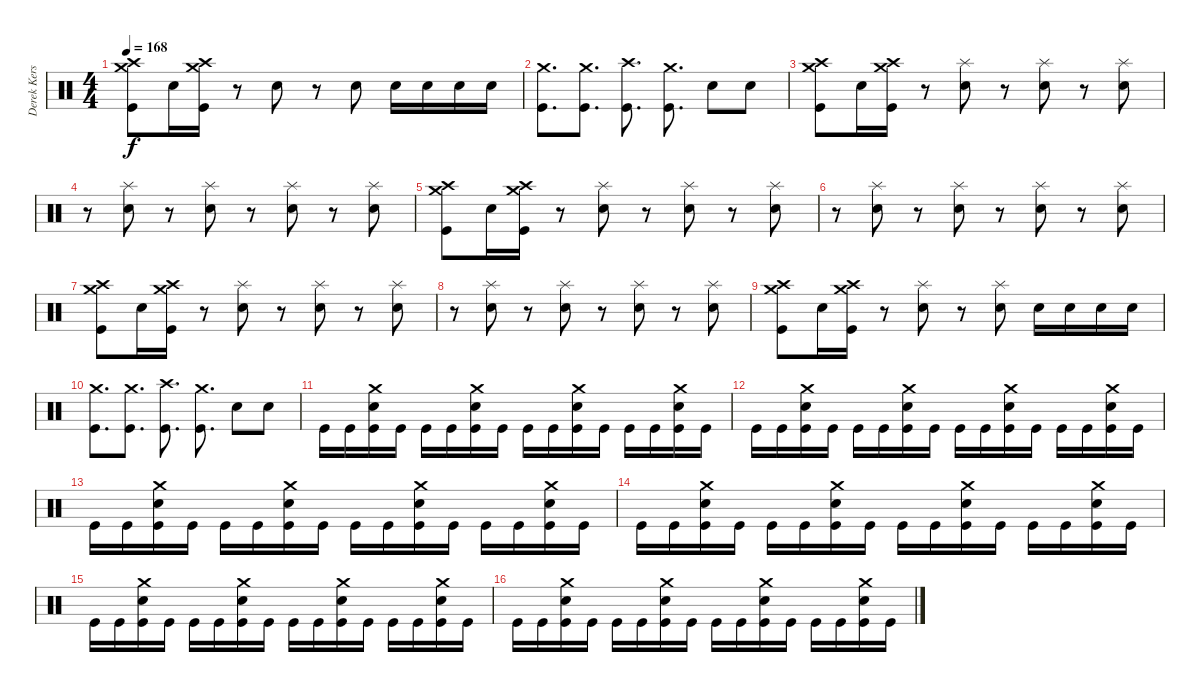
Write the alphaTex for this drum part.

\track ("Derek Kerswill" "Derek Kers") {instrument percussion}
\staff {score}
\articulation defaults
\ts (4 4)
\tempo 168
\clef neutral
\ks c
("Crash medium (hit)" "Crash high (hit)" "Kick (hit)").8{dy f} "Electric Snare (hit)".16 ("Crash high (hit)" "Crash medium (hit)" "Kick (hit)").16 r.8 "Electric Snare (hit)".8 r.8 "Electric Snare (hit)".8 "Electric Snare (hit)".16 "Electric Snare (hit)".16 "Electric Snare (hit)".16 "Electric Snare (hit)".16 |
("Crash medium (hit)" "Kick (hit)").8{d} ("Crash medium (hit)" "Kick (hit)").8{d} ("Crash high (hit)" "Kick (hit)").8{d} ("Crash medium (hit)" "Kick (hit)").8{d} "Electric Snare (hit)".8 "Electric Snare (hit)".8 |
("Crash medium (hit)" "Crash high (hit)" "Kick (hit)").8 "Electric Snare (hit)".16 ("Crash high (hit)" "Crash medium (hit)" "Kick (hit)").16 r.8 ("Splash (hit)" "Electric Snare (hit)").8 r.8 ("Splash (hit)" "Electric Snare (hit)").8 r.8 ("Splash (hit)" "Electric Snare (hit)").8 |
r.8 ("Splash (hit)" "Electric Snare (hit)").8 r.8 ("Splash (hit)" "Electric Snare (hit)").8 r.8 ("Splash (hit)" "Electric Snare (hit)").8 r.8 ("Splash (hit)" "Electric Snare (hit)").8 |
("Crash medium (hit)" "Crash high (hit)" "Kick (hit)").8 "Electric Snare (hit)".16 ("Crash high (hit)" "Crash medium (hit)" "Kick (hit)").16 r.8 ("Splash (hit)" "Electric Snare (hit)").8 r.8 ("Splash (hit)" "Electric Snare (hit)").8 r.8 ("Splash (hit)" "Electric Snare (hit)").8 |
r.8 ("Splash (hit)" "Electric Snare (hit)").8 r.8 ("Splash (hit)" "Electric Snare (hit)").8 r.8 ("Splash (hit)" "Electric Snare (hit)").8 r.8 ("Splash (hit)" "Electric Snare (hit)").8 |
("Crash medium (hit)" "Crash high (hit)" "Kick (hit)").8 "Electric Snare (hit)".16 ("Crash high (hit)" "Crash medium (hit)" "Kick (hit)").16 r.8 ("Splash (hit)" "Electric Snare (hit)").8 r.8 ("Splash (hit)" "Electric Snare (hit)").8 r.8 ("Splash (hit)" "Electric Snare (hit)").8 |
r.8 ("Splash (hit)" "Electric Snare (hit)").8 r.8 ("Splash (hit)" "Electric Snare (hit)").8 r.8 ("Splash (hit)" "Electric Snare (hit)").8 r.8 ("Splash (hit)" "Electric Snare (hit)").8 |
("Crash medium (hit)" "Crash high (hit)" "Kick (hit)").8 "Electric Snare (hit)".16 ("Crash high (hit)" "Crash medium (hit)" "Kick (hit)").16 r.8 ("Splash (hit)" "Electric Snare (hit)").8 r.8 ("Splash (hit)" "Electric Snare (hit)").8 "Electric Snare (hit)".16 "Electric Snare (hit)".16 "Electric Snare (hit)".16 "Electric Snare (hit)".16 |
("Crash medium (hit)" "Kick (hit)").8{d} ("Crash medium (hit)" "Kick (hit)").8{d} ("Crash high (hit)" "Kick (hit)").8{d} ("Crash medium (hit)" "Kick (hit)").8{d} "Electric Snare (hit)".8 "Electric Snare (hit)".8 |
"Kick (hit)".16 "Kick (hit)".16 ("Crash medium (hit)" "Electric Snare (hit)" "Kick (hit)").16 "Kick (hit)".16 "Kick (hit)".16 "Kick (hit)".16 ("Crash medium (hit)" "Electric Snare (hit)" "Kick (hit)").16 "Kick (hit)".16 "Kick (hit)".16 "Kick (hit)".16 ("Crash medium (hit)" "Electric Snare (hit)" "Kick (hit)").16 "Kick (hit)".16 "Kick (hit)".16 "Kick (hit)".16 ("Crash medium (hit)" "Electric Snare (hit)" "Kick (hit)").16 "Kick (hit)".16 |
"Kick (hit)".16 "Kick (hit)".16 ("Crash medium (hit)" "Electric Snare (hit)" "Kick (hit)").16 "Kick (hit)".16 "Kick (hit)".16 "Kick (hit)".16 ("Crash medium (hit)" "Electric Snare (hit)" "Kick (hit)").16 "Kick (hit)".16 "Kick (hit)".16 "Kick (hit)".16 ("Crash medium (hit)" "Electric Snare (hit)" "Kick (hit)").16 "Kick (hit)".16 "Kick (hit)".16 "Kick (hit)".16 ("Crash medium (hit)" "Electric Snare (hit)" "Kick (hit)").16 "Kick (hit)".16 |
"Kick (hit)".16 "Kick (hit)".16 ("Crash medium (hit)" "Electric Snare (hit)" "Kick (hit)").16 "Kick (hit)".16 "Kick (hit)".16 "Kick (hit)".16 ("Crash medium (hit)" "Electric Snare (hit)" "Kick (hit)").16 "Kick (hit)".16 "Kick (hit)".16 "Kick (hit)".16 ("Crash medium (hit)" "Electric Snare (hit)" "Kick (hit)").16 "Kick (hit)".16 "Kick (hit)".16 "Kick (hit)".16 ("Crash medium (hit)" "Electric Snare (hit)" "Kick (hit)").16 "Kick (hit)".16 |
"Kick (hit)".16 "Kick (hit)".16 ("Crash medium (hit)" "Electric Snare (hit)" "Kick (hit)").16 "Kick (hit)".16 "Kick (hit)".16 "Kick (hit)".16 ("Crash medium (hit)" "Electric Snare (hit)" "Kick (hit)").16 "Kick (hit)".16 "Kick (hit)".16 "Kick (hit)".16 ("Crash medium (hit)" "Electric Snare (hit)" "Kick (hit)").16 "Kick (hit)".16 "Kick (hit)".16 "Kick (hit)".16 ("Crash medium (hit)" "Electric Snare (hit)" "Kick (hit)").16 "Kick (hit)".16 |
"Kick (hit)".16 "Kick (hit)".16 ("Crash medium (hit)" "Electric Snare (hit)" "Kick (hit)").16 "Kick (hit)".16 "Kick (hit)".16 "Kick (hit)".16 ("Crash medium (hit)" "Electric Snare (hit)" "Kick (hit)").16 "Kick (hit)".16 "Kick (hit)".16 "Kick (hit)".16 ("Crash medium (hit)" "Electric Snare (hit)" "Kick (hit)").16 "Kick (hit)".16 "Kick (hit)".16 "Kick (hit)".16 ("Crash medium (hit)" "Electric Snare (hit)" "Kick (hit)").16 "Kick (hit)".16 |
"Kick (hit)".16 "Kick (hit)".16 ("Crash medium (hit)" "Electric Snare (hit)" "Kick (hit)").16 "Kick (hit)".16 "Kick (hit)".16 "Kick (hit)".16 ("Crash medium (hit)" "Electric Snare (hit)" "Kick (hit)").16 "Kick (hit)".16 "Kick (hit)".16 "Kick (hit)".16 ("Crash medium (hit)" "Electric Snare (hit)" "Kick (hit)").16 "Kick (hit)".16 "Kick (hit)".16 "Kick (hit)".16 ("Crash medium (hit)" "Electric Snare (hit)" "Kick (hit)").16 "Kick (hit)".16
